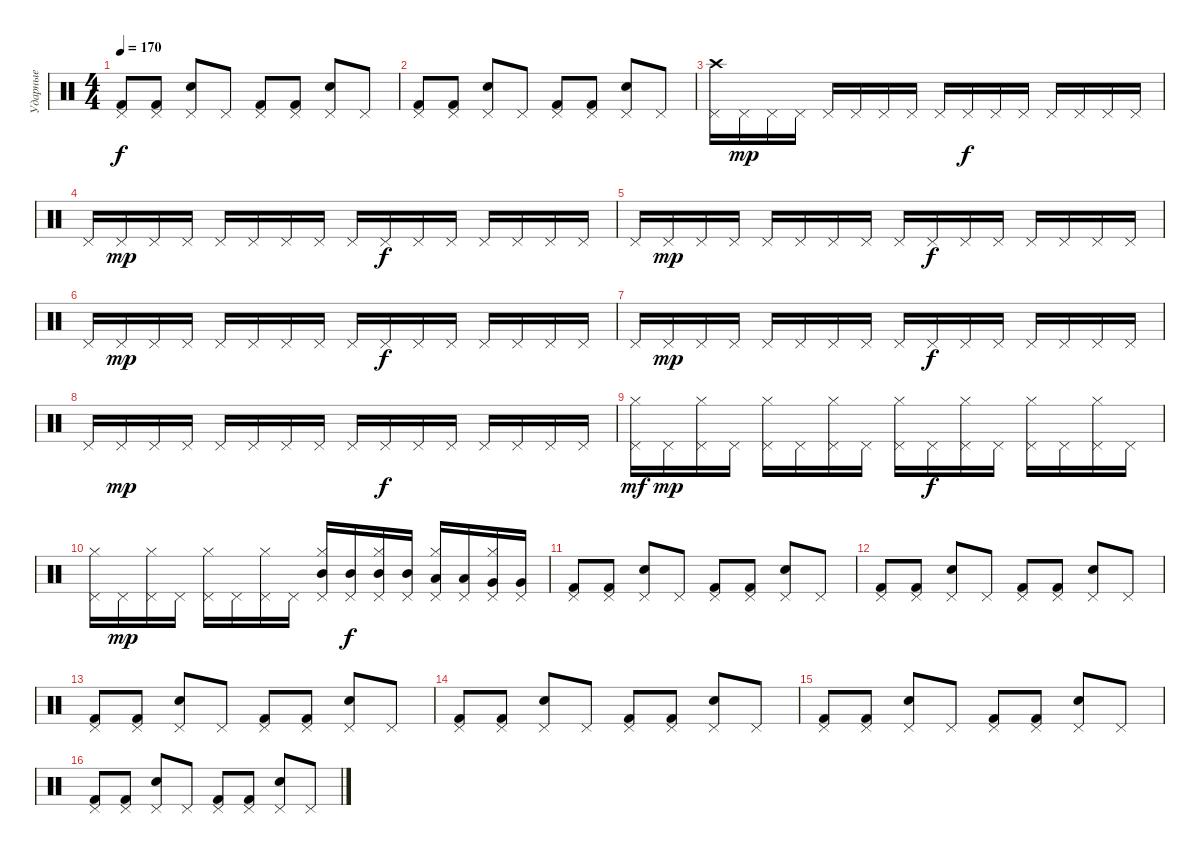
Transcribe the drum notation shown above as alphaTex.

\track ("Ударные" "Ударные") {instrument percussion}
\staff {score}
\articulation defaults
\ts (4 4)
\tempo 170
\clef neutral
\ks c
("Kick (hit) 2" "Pedal Hi-Hat (hit)").8{dy f} ("Kick (hit) 2" "Pedal Hi-Hat (hit)").8 ("Pedal Hi-Hat (hit)" "Electric Snare (hit)").8 "Pedal Hi-Hat (hit)".8 ("Kick (hit) 2" "Pedal Hi-Hat (hit)").8 ("Pedal Hi-Hat (hit)" "Kick (hit) 2").8 ("Pedal Hi-Hat (hit)" "Electric Snare (hit)").8 "Pedal Hi-Hat (hit)".8 |
("Pedal Hi-Hat (hit)" "Kick (hit) 2").8 ("Kick (hit) 2" "Pedal Hi-Hat (hit)").8 ("Pedal Hi-Hat (hit)" "Electric Snare (hit)").8 "Pedal Hi-Hat (hit)".8 ("Kick (hit) 2" "Pedal Hi-Hat (hit)").8 ("Pedal Hi-Hat (hit)" "Kick (hit) 2").8 ("Pedal Hi-Hat (hit)" "Electric Snare (hit)").8 "Pedal Hi-Hat (hit)".8 |
("Crash high (hit)" "Pedal Hi-Hat (hit)").16 "Pedal Hi-Hat (hit)".16{dy mp} "Pedal Hi-Hat (hit)".16 "Pedal Hi-Hat (hit)".16 "Pedal Hi-Hat (hit)".16 "Pedal Hi-Hat (hit)".16 "Pedal Hi-Hat (hit)".16 "Pedal Hi-Hat (hit)".16 "Pedal Hi-Hat (hit)".16 "Pedal Hi-Hat (hit)".16{dy f} "Pedal Hi-Hat (hit)".16 "Pedal Hi-Hat (hit)".16 "Pedal Hi-Hat (hit)".16 "Pedal Hi-Hat (hit)".16 "Pedal Hi-Hat (hit)".16 "Pedal Hi-Hat (hit)".16 |
"Pedal Hi-Hat (hit)".16 "Pedal Hi-Hat (hit)".16{dy mp} "Pedal Hi-Hat (hit)".16 "Pedal Hi-Hat (hit)".16 "Pedal Hi-Hat (hit)".16 "Pedal Hi-Hat (hit)".16 "Pedal Hi-Hat (hit)".16 "Pedal Hi-Hat (hit)".16 "Pedal Hi-Hat (hit)".16 "Pedal Hi-Hat (hit)".16{dy f} "Pedal Hi-Hat (hit)".16 "Pedal Hi-Hat (hit)".16 "Pedal Hi-Hat (hit)".16 "Pedal Hi-Hat (hit)".16 "Pedal Hi-Hat (hit)".16 "Pedal Hi-Hat (hit)".16 |
"Pedal Hi-Hat (hit)".16 "Pedal Hi-Hat (hit)".16{dy mp} "Pedal Hi-Hat (hit)".16 "Pedal Hi-Hat (hit)".16 "Pedal Hi-Hat (hit)".16 "Pedal Hi-Hat (hit)".16 "Pedal Hi-Hat (hit)".16 "Pedal Hi-Hat (hit)".16 "Pedal Hi-Hat (hit)".16 "Pedal Hi-Hat (hit)".16{dy f} "Pedal Hi-Hat (hit)".16 "Pedal Hi-Hat (hit)".16 "Pedal Hi-Hat (hit)".16 "Pedal Hi-Hat (hit)".16 "Pedal Hi-Hat (hit)".16 "Pedal Hi-Hat (hit)".16 |
"Pedal Hi-Hat (hit)".16 "Pedal Hi-Hat (hit)".16{dy mp} "Pedal Hi-Hat (hit)".16 "Pedal Hi-Hat (hit)".16 "Pedal Hi-Hat (hit)".16 "Pedal Hi-Hat (hit)".16 "Pedal Hi-Hat (hit)".16 "Pedal Hi-Hat (hit)".16 "Pedal Hi-Hat (hit)".16 "Pedal Hi-Hat (hit)".16{dy f} "Pedal Hi-Hat (hit)".16 "Pedal Hi-Hat (hit)".16 "Pedal Hi-Hat (hit)".16 "Pedal Hi-Hat (hit)".16 "Pedal Hi-Hat (hit)".16 "Pedal Hi-Hat (hit)".16 |
"Pedal Hi-Hat (hit)".16 "Pedal Hi-Hat (hit)".16{dy mp} "Pedal Hi-Hat (hit)".16 "Pedal Hi-Hat (hit)".16 "Pedal Hi-Hat (hit)".16 "Pedal Hi-Hat (hit)".16 "Pedal Hi-Hat (hit)".16 "Pedal Hi-Hat (hit)".16 "Pedal Hi-Hat (hit)".16 "Pedal Hi-Hat (hit)".16{dy f} "Pedal Hi-Hat (hit)".16 "Pedal Hi-Hat (hit)".16 "Pedal Hi-Hat (hit)".16 "Pedal Hi-Hat (hit)".16 "Pedal Hi-Hat (hit)".16 "Pedal Hi-Hat (hit)".16 |
"Pedal Hi-Hat (hit)".16 "Pedal Hi-Hat (hit)".16{dy mp} "Pedal Hi-Hat (hit)".16 "Pedal Hi-Hat (hit)".16 "Pedal Hi-Hat (hit)".16 "Pedal Hi-Hat (hit)".16 "Pedal Hi-Hat (hit)".16 "Pedal Hi-Hat (hit)".16 "Pedal Hi-Hat (hit)".16 "Pedal Hi-Hat (hit)".16{dy f} "Pedal Hi-Hat (hit)".16 "Pedal Hi-Hat (hit)".16 "Pedal Hi-Hat (hit)".16 "Pedal Hi-Hat (hit)".16 "Pedal Hi-Hat (hit)".16 "Pedal Hi-Hat (hit)".16 |
("Hi-Hat (closed)" "Pedal Hi-Hat (hit)").16{dy mf} "Pedal Hi-Hat (hit)".16{dy mp} ("Hi-Hat (closed)" "Pedal Hi-Hat (hit)").16 "Pedal Hi-Hat (hit)".16 ("Pedal Hi-Hat (hit)" "Hi-Hat (closed)").16 "Pedal Hi-Hat (hit)".16 ("Hi-Hat (closed)" "Pedal Hi-Hat (hit)").16 "Pedal Hi-Hat (hit)".16 ("Pedal Hi-Hat (hit)" "Hi-Hat (closed)").16 "Pedal Hi-Hat (hit)".16{dy f} ("Hi-Hat (closed)" "Pedal Hi-Hat (hit)").16 "Pedal Hi-Hat (hit)".16 ("Hi-Hat (closed)" "Pedal Hi-Hat (hit)").16 "Pedal Hi-Hat (hit)".16 ("Pedal Hi-Hat (hit)" "Hi-Hat (closed)").16 "Pedal Hi-Hat (hit)".16 |
("Pedal Hi-Hat (hit)" "Hi-Hat (closed)").16 "Pedal Hi-Hat (hit)".16{dy mp} ("Hi-Hat (closed)" "Pedal Hi-Hat (hit)").16 "Pedal Hi-Hat (hit)".16 ("Pedal Hi-Hat (hit)" "Hi-Hat (closed)").16 "Pedal Hi-Hat (hit)".16 ("Hi-Hat (closed)" "Pedal Hi-Hat (hit)").16 "Pedal Hi-Hat (hit)".16 ("Mid Tom (hit)" "Hi-Hat (closed)" "Pedal Hi-Hat (hit)").16 ("Pedal Hi-Hat (hit)" "Mid Tom (hit)").16{dy f} ("Hi-Hat (closed)" "Mid Tom (hit)" "Pedal Hi-Hat (hit)").16 ("Mid Tom (hit)" "Pedal Hi-Hat (hit)").16 ("Hi-Hat (closed)" "Low Tom (hit)" "Pedal Hi-Hat (hit)").16 ("Low Tom (hit)" "Pedal Hi-Hat (hit)").16 ("Pedal Hi-Hat (hit)" "Hi-Hat (closed)" "Very Low Tom (hit)").16 ("Pedal Hi-Hat (hit)" "Very Low Tom (hit)").16 |
("Pedal Hi-Hat (hit)" "Kick (hit) 2").8 ("Kick (hit) 2" "Pedal Hi-Hat (hit)").8 ("Electric Snare (hit)" "Pedal Hi-Hat (hit)").8 "Pedal Hi-Hat (hit)".8 ("Kick (hit) 2" "Pedal Hi-Hat (hit)").8 ("Pedal Hi-Hat (hit)" "Kick (hit) 2").8 ("Pedal Hi-Hat (hit)" "Electric Snare (hit)").8 "Pedal Hi-Hat (hit)".8 |
("Kick (hit) 2" "Pedal Hi-Hat (hit)").8 ("Kick (hit) 2" "Pedal Hi-Hat (hit)").8 ("Electric Snare (hit)" "Pedal Hi-Hat (hit)").8 "Pedal Hi-Hat (hit)".8 ("Kick (hit) 2" "Pedal Hi-Hat (hit)").8 ("Kick (hit) 2" "Pedal Hi-Hat (hit)").8 ("Electric Snare (hit)" "Pedal Hi-Hat (hit)").8 "Pedal Hi-Hat (hit)".8 |
("Kick (hit) 2" "Pedal Hi-Hat (hit)").8 ("Kick (hit) 2" "Pedal Hi-Hat (hit)").8 ("Electric Snare (hit)" "Pedal Hi-Hat (hit)").8 "Pedal Hi-Hat (hit)".8 ("Kick (hit) 2" "Pedal Hi-Hat (hit)").8 ("Kick (hit) 2" "Pedal Hi-Hat (hit)").8 ("Pedal Hi-Hat (hit)" "Electric Snare (hit)").8 "Pedal Hi-Hat (hit)".8 |
("Pedal Hi-Hat (hit)" "Kick (hit) 2").8 ("Kick (hit) 2" "Pedal Hi-Hat (hit)").8 ("Pedal Hi-Hat (hit)" "Electric Snare (hit)").8 "Pedal Hi-Hat (hit)".8 ("Pedal Hi-Hat (hit)" "Kick (hit) 2").8 ("Pedal Hi-Hat (hit)" "Kick (hit) 2").8 ("Electric Snare (hit)" "Pedal Hi-Hat (hit)").8 "Pedal Hi-Hat (hit)".8 |
("Pedal Hi-Hat (hit)" "Kick (hit) 2").8 ("Pedal Hi-Hat (hit)" "Kick (hit) 2").8 ("Electric Snare (hit)" "Pedal Hi-Hat (hit)").8 "Pedal Hi-Hat (hit)".8 ("Kick (hit) 2" "Pedal Hi-Hat (hit)").8 ("Pedal Hi-Hat (hit)" "Kick (hit) 2").8 ("Pedal Hi-Hat (hit)" "Electric Snare (hit)").8 "Pedal Hi-Hat (hit)".8 |
("Pedal Hi-Hat (hit)" "Kick (hit) 2").8 ("Kick (hit) 2" "Pedal Hi-Hat (hit)").8 ("Pedal Hi-Hat (hit)" "Electric Snare (hit)").8 "Pedal Hi-Hat (hit)".8 ("Pedal Hi-Hat (hit)" "Kick (hit) 2").8 ("Pedal Hi-Hat (hit)" "Kick (hit) 2").8 ("Electric Snare (hit)" "Pedal Hi-Hat (hit)").8 "Pedal Hi-Hat (hit)".8
